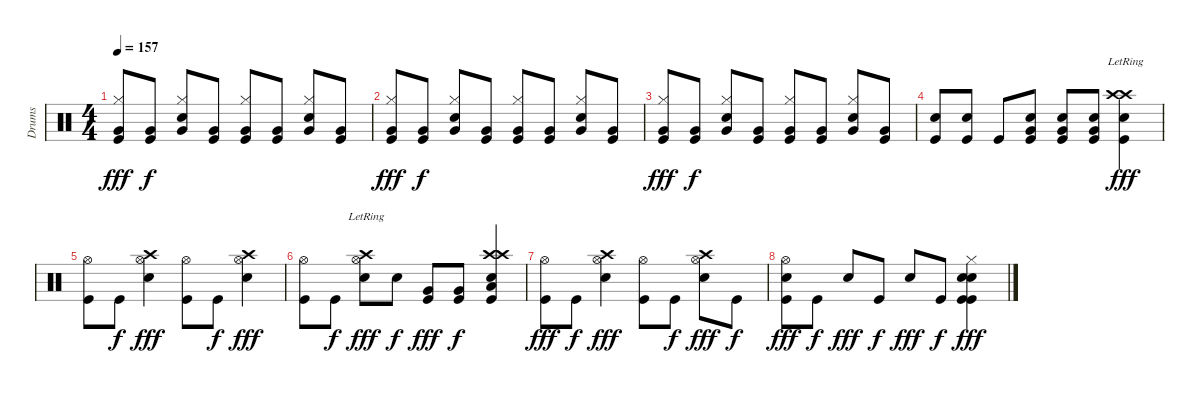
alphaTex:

\track ("Drums" "Drums") {instrument percussion}
\staff {score}
\articulation defaults
\ts (4 4)
\tempo 157
\clef neutral
\ks c
("Very Low Tom (hit)" "Hi-Hat (closed)" "Kick (hit)").8{dy fff} ("Very Low Tom (hit)" "Kick (hit)").8{dy f} ("Very Low Tom (hit)" "Hi-Hat (closed)" "Snare (hit) 2").8 ("Very Low Tom (hit)" "Kick (hit)").8 ("Very Low Tom (hit)" "Hi-Hat (closed)" "Kick (hit)").8 ("Very Low Tom (hit)" "Kick (hit)").8 ("Very Low Tom (hit)" "Hi-Hat (closed)" "Snare (hit) 2").8 ("Very Low Tom (hit)" "Kick (hit)").8 |
("Very Low Tom (hit)" "Hi-Hat (closed)" "Kick (hit)").8{dy fff} ("Very Low Tom (hit)" "Kick (hit)").8{dy f} ("Very Low Tom (hit)" "Hi-Hat (closed)" "Snare (hit) 2").8 ("Very Low Tom (hit)" "Kick (hit)").8 ("Very Low Tom (hit)" "Hi-Hat (closed)" "Kick (hit)").8 ("Very Low Tom (hit)" "Kick (hit)").8 ("Very Low Tom (hit)" "Hi-Hat (closed)" "Snare (hit) 2").8 ("Very Low Tom (hit)" "Kick (hit)").8 |
("Very Low Tom (hit)" "Hi-Hat (closed)" "Kick (hit)").8{dy fff} ("Very Low Tom (hit)" "Kick (hit)").8{dy f} ("Very Low Tom (hit)" "Hi-Hat (closed)" "Snare (hit) 2").8 ("Very Low Tom (hit)" "Kick (hit)").8 ("Very Low Tom (hit)" "Hi-Hat (closed)" "Kick (hit)").8 ("Very Low Tom (hit)" "Kick (hit)").8 ("Very Low Tom (hit)" "Hi-Hat (closed)" "Snare (hit) 2").8 ("Very Low Tom (hit)" "Kick (hit)").8 |
("Snare (hit) 2" "Kick (hit)").8 ("Snare (hit) 2" "Kick (hit)").8 "Kick (hit)".8 ("Very Low Tom (hit)" "Snare (hit) 2" "Kick (hit)").8 ("Very Low Tom (hit)" "Snare (hit) 2" "Kick (hit)").8 ("Very Low Tom (hit)" "Snare (hit) 2" "Kick (hit)").8 ("Crash high (hit)"{lr} "Crash high (hit)"{lr} "Snare (hit) 2" "Kick (hit)").4{dy fff} |
("Hi-Hat (open)" "Kick (hit)").8 "Kick (hit)".8{dy f} ("Crash high (hit)" "Hi-Hat (open)" "Snare (hit) 2").4{dy fff} ("Hi-Hat (open)" "Kick (hit)").8 "Kick (hit)".8{dy f} ("Crash high (hit)" "Hi-Hat (open)" "Snare (hit) 2").4{dy fff} |
("Hi-Hat (open)" "Kick (hit)").8 "Kick (hit)".8{dy f} ("Crash high (hit)" "Hi-Hat (open)"{lr} "Snare (hit) 2").8{dy fff} "Snare (hit) 2".8{dy f} ("Very Low Tom (hit)" "Kick (hit)").8{dy fff} ("Very Low Tom (hit)" "Kick (hit)").8{dy f} ("Crash high (hit)" "Crash high (hit)" "Low Tom (hit)" "Snare (hit) 2" "Kick (hit)").4 |
("Hi-Hat (open)" "Kick (hit)").8{dy fff} "Kick (hit)".8{dy f} ("Crash high (hit)" "Hi-Hat (open)" "Snare (hit) 2").4{dy fff} ("Hi-Hat (open)" "Kick (hit)").8 "Kick (hit)".8{dy f} ("Crash high (hit)" "Hi-Hat (open)" "Snare (hit) 2").8{dy fff} "Kick (hit)".8{dy f} |
("Hi-Hat (open)" "Snare (hit) 2" "Kick (hit)").8{dy fff} "Kick (hit)".8{dy f} "Snare (hit) 2".8{dy fff} "Kick (hit)".8{dy f} "Snare (hit) 2".8{dy fff} "Kick (hit)".8{dy f} ("Kick (hit)" "Snare (hit) 2" "Hi-Hat (closed)" "Snare (hit) 2" "Kick (hit)").4{dy fff}
